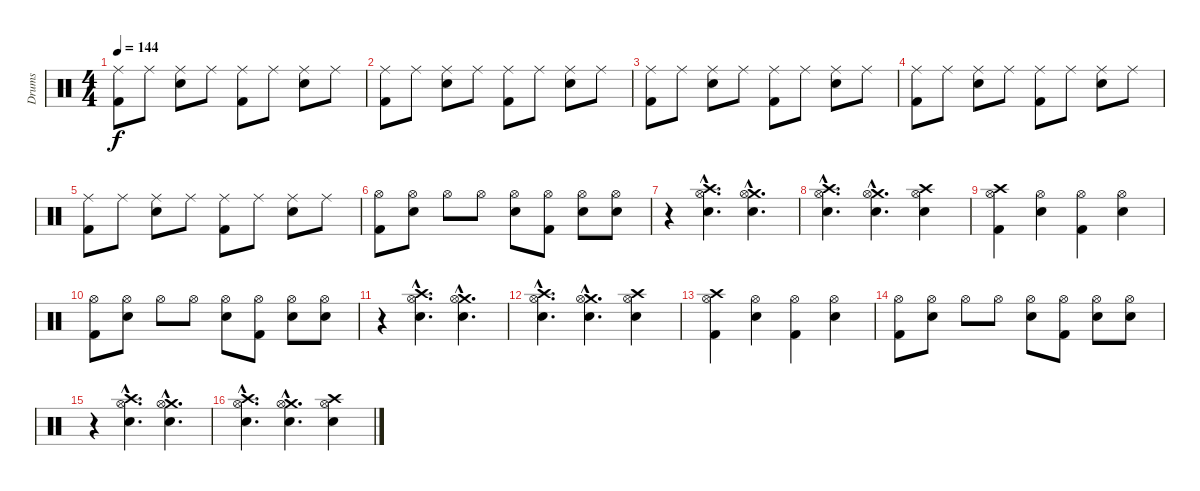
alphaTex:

\track ("Drums" "Drums") {instrument percussion}
\staff {score}
\articulation defaults
\ts (4 4)
\tempo 144
\clef neutral
\ks c
("Ride (middle)" "Kick (hit) 2").8{dy f} "Ride (middle)".8 ("Ride (middle)" "Electric Snare (hit)").8 "Ride (middle)".8 ("Ride (middle)" "Kick (hit) 2").8 "Ride (middle)".8 ("Ride (middle)" "Electric Snare (hit)").8 "Ride (middle)".8 |
("Ride (middle)" "Kick (hit) 2").8 "Ride (middle)".8 ("Ride (middle)" "Electric Snare (hit)").8 "Ride (middle)".8 ("Ride (middle)" "Kick (hit) 2").8 "Ride (middle)".8 ("Ride (middle)" "Electric Snare (hit)").8 "Ride (middle)".8 |
("Ride (middle)" "Kick (hit) 2").8 "Ride (middle)".8 ("Ride (middle)" "Electric Snare (hit)").8 "Ride (middle)".8 ("Ride (middle)" "Kick (hit) 2").8 "Ride (middle)".8 ("Ride (middle)" "Electric Snare (hit)").8 "Ride (middle)".8 |
("Ride (middle)" "Kick (hit) 2").8 "Ride (middle)".8 ("Ride (middle)" "Electric Snare (hit)").8 "Ride (middle)".8 ("Ride (middle)" "Kick (hit) 2").8 "Ride (middle)".8 ("Ride (middle)" "Electric Snare (hit)").8 "Ride (middle)".8 |
("Ride (middle)" "Kick (hit) 2").8 "Ride (middle)".8 ("Ride (middle)" "Electric Snare (hit)").8 "Ride (middle)".8 ("Ride (middle)" "Kick (hit) 2").8 "Ride (middle)".8 ("Ride (middle)" "Electric Snare (hit)").8 "Ride (middle)".8 |
("Hi-Hat (open)" "Kick (hit) 2").8 ("Hi-Hat (open)" "Electric Snare (hit)").8 "Hi-Hat (open)".8 "Hi-Hat (open)".8 ("Hi-Hat (open)" "Electric Snare (hit)").8 ("Hi-Hat (open)" "Kick (hit) 2").8 ("Hi-Hat (open)" "Electric Snare (hit)").8 ("Hi-Hat (open)" "Electric Snare (hit)").8 |
r.4 ("Crash high (hit)"{hac} "Hi-Hat (open)"{hac} "Electric Snare (hit)"{hac}).4{d} ("Crash medium (hit)"{hac} "Hi-Hat (open)"{hac} "Electric Snare (hit)"{hac}).4{d} |
("Crash high (hit)"{hac} "Hi-Hat (open)"{hac} "Electric Snare (hit)"{hac}).4{d} ("Crash medium (hit)"{hac} "Hi-Hat (open)"{hac} "Electric Snare (hit)"{hac}).4{d} ("Crash high (hit)" "Hi-Hat (open)" "Electric Snare (hit)").4 |
("Crash high (hit)" "Hi-Hat (open)" "Kick (hit) 2").4 ("Hi-Hat (open)" "Electric Snare (hit)").4 ("Hi-Hat (open)" "Kick (hit) 2").4 ("Hi-Hat (open)" "Electric Snare (hit)").4 |
("Hi-Hat (open)" "Kick (hit) 2").8 ("Hi-Hat (open)" "Electric Snare (hit)").8 "Hi-Hat (open)".8 "Hi-Hat (open)".8 ("Hi-Hat (open)" "Electric Snare (hit)").8 ("Hi-Hat (open)" "Kick (hit) 2").8 ("Hi-Hat (open)" "Electric Snare (hit)").8 ("Hi-Hat (open)" "Electric Snare (hit)").8 |
r.4 ("Crash high (hit)"{hac} "Hi-Hat (open)"{hac} "Electric Snare (hit)"{hac}).4{d} ("Crash medium (hit)"{hac} "Hi-Hat (open)"{hac} "Electric Snare (hit)"{hac}).4{d} |
("Crash high (hit)"{hac} "Hi-Hat (open)"{hac} "Electric Snare (hit)"{hac}).4{d} ("Crash medium (hit)"{hac} "Hi-Hat (open)"{hac} "Electric Snare (hit)"{hac}).4{d} ("Crash high (hit)" "Hi-Hat (open)" "Electric Snare (hit)").4 |
("Crash high (hit)" "Hi-Hat (open)" "Kick (hit) 2").4 ("Hi-Hat (open)" "Electric Snare (hit)").4 ("Hi-Hat (open)" "Kick (hit) 2").4 ("Hi-Hat (open)" "Electric Snare (hit)").4 |
("Hi-Hat (open)" "Kick (hit) 2").8 ("Hi-Hat (open)" "Electric Snare (hit)").8 "Hi-Hat (open)".8 "Hi-Hat (open)".8 ("Hi-Hat (open)" "Electric Snare (hit)").8 ("Hi-Hat (open)" "Kick (hit) 2").8 ("Hi-Hat (open)" "Electric Snare (hit)").8 ("Hi-Hat (open)" "Electric Snare (hit)").8 |
r.4 ("Crash high (hit)"{hac} "Hi-Hat (open)"{hac} "Electric Snare (hit)"{hac}).4{d} ("Crash medium (hit)"{hac} "Hi-Hat (open)"{hac} "Electric Snare (hit)"{hac}).4{d} |
("Crash high (hit)"{hac} "Hi-Hat (open)"{hac} "Electric Snare (hit)"{hac}).4{d} ("Crash medium (hit)"{hac} "Hi-Hat (open)"{hac} "Electric Snare (hit)"{hac}).4{d} ("Crash high (hit)" "Hi-Hat (open)" "Electric Snare (hit)").4
